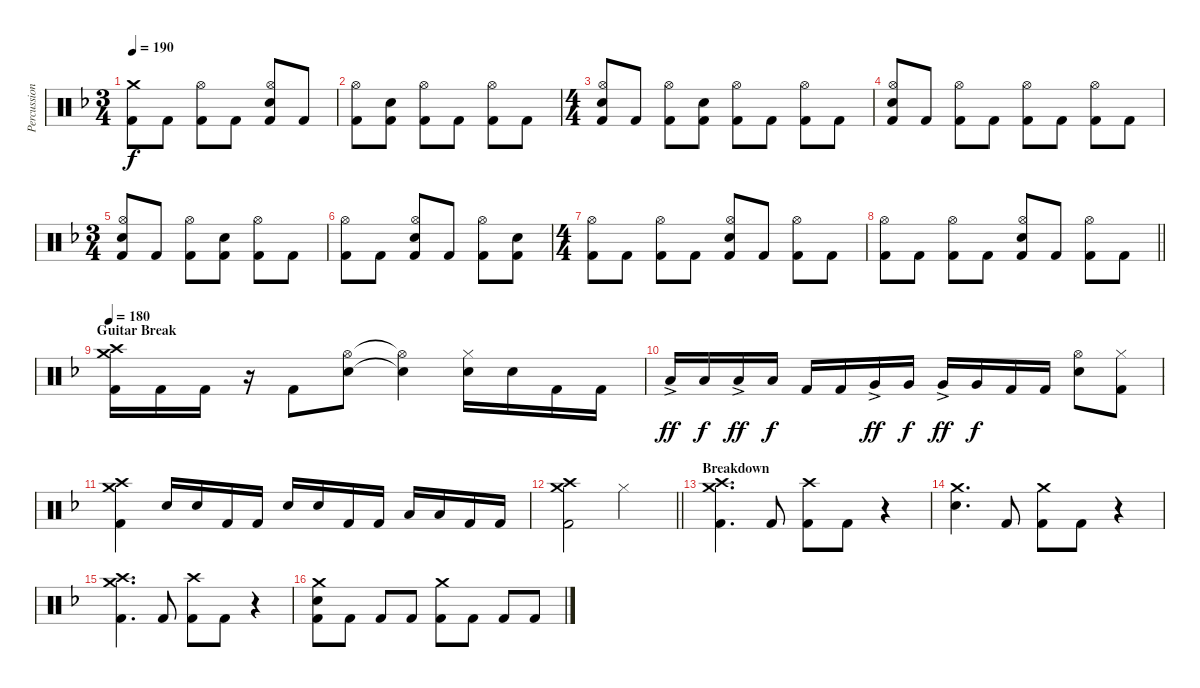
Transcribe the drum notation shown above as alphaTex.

\track ("Percussion" "Percussion") {instrument percussion}
\staff {score}
\articulation defaults
\ts (3 4)
\tempo 190
\clef neutral
\ks f
("Crash medium (hit)" "Kick (hit) 2").8{dy f} "Kick (hit) 2".8 ("Hi-Hat (open)" "Kick (hit) 2").8 "Kick (hit) 2".8 ("Hi-Hat (open)" "Electric Snare (hit)" "Kick (hit) 2").8 "Kick (hit) 2".8 |
("Hi-Hat (open)" "Kick (hit) 2").8 ("Electric Snare (hit)" "Kick (hit) 2").8 ("Hi-Hat (open)" "Kick (hit) 2").8 "Kick (hit) 2".8 ("Hi-Hat (open)" "Kick (hit) 2").8 "Kick (hit) 2".8 |
\ts (4 4)
("Hi-Hat (open)" "Electric Snare (hit)" "Kick (hit) 2").8 "Kick (hit) 2".8 ("Hi-Hat (open)" "Kick (hit) 2").8 ("Electric Snare (hit)" "Kick (hit) 2").8 ("Hi-Hat (open)" "Kick (hit) 2").8 "Kick (hit) 2".8 ("Hi-Hat (open)" "Kick (hit) 2").8 "Kick (hit) 2".8 |
("Hi-Hat (open)" "Electric Snare (hit)" "Kick (hit) 2").8 "Kick (hit) 2".8 ("Hi-Hat (open)" "Kick (hit) 2").8 "Kick (hit) 2".8 ("Hi-Hat (open)" "Kick (hit) 2").8 "Kick (hit) 2".8 ("Hi-Hat (open)" "Kick (hit) 2").8 "Kick (hit) 2".8 |
\ts (3 4)
("Hi-Hat (open)" "Electric Snare (hit)" "Kick (hit) 2").8 "Kick (hit) 2".8 ("Hi-Hat (open)" "Kick (hit) 2").8 ("Electric Snare (hit)" "Kick (hit) 2").8 ("Hi-Hat (open)" "Kick (hit) 2").8 "Kick (hit) 2".8 |
("Hi-Hat (open)" "Kick (hit) 2").8 "Kick (hit) 2".8 ("Hi-Hat (open)" "Electric Snare (hit)" "Kick (hit) 2").8 "Kick (hit) 2".8 ("Hi-Hat (open)" "Kick (hit) 2").8 ("Electric Snare (hit)" "Kick (hit) 2").8 |
\ts (4 4)
("Hi-Hat (open)" "Kick (hit) 2").8 "Kick (hit) 2".8 ("Hi-Hat (open)" "Kick (hit) 2").8 "Kick (hit) 2".8 ("Hi-Hat (open)" "Electric Snare (hit)" "Kick (hit) 2").8 "Kick (hit) 2".8 ("Hi-Hat (open)" "Kick (hit) 2").8 "Kick (hit) 2".8 |
\barLineRight lightlight
("Hi-Hat (open)" "Kick (hit) 2").8 "Kick (hit) 2".8 ("Hi-Hat (open)" "Kick (hit) 2").8 "Kick (hit) 2".8 ("Hi-Hat (open)" "Electric Snare (hit)" "Kick (hit) 2").8 "Kick (hit) 2".8 ("Hi-Hat (open)" "Kick (hit) 2").8 "Kick (hit) 2".8 |
\section ("" "Guitar Break")
\tempo 180
("Crash medium (hit)" "Crash high (hit)" "Kick (hit) 2").16 "Kick (hit) 2".16 "Kick (hit) 2".16 r.16 "Kick (hit) 2".8 ("Hi-Hat (open)" "Electric Snare (hit)").8 ("Hi-Hat (open)"{t} "Electric Snare (hit)"{t}).4 ("Hi-Hat (closed)" "Electric Snare (hit)").16 "Electric Snare (hit)".16 "Kick (hit) 2".16 "Kick (hit) 2".16 |
"Low Tom (hit)"{ac}.16{dy ff} "Low Tom (hit)".16{dy f} "Low Tom (hit)"{ac}.16{dy ff} "Low Tom (hit)".16{dy f} "Kick (hit) 2".16 "Kick (hit) 2".16 "Very Low Tom (hit)"{ac}.16{dy ff} "Very Low Tom (hit)".16{dy f} "Very Low Tom (hit)"{ac}.16{dy ff} "Very Low Tom (hit)".16{dy f} "Kick (hit) 2".16 "Kick (hit) 2".16 ("Hi-Hat (open)" "Electric Snare (hit)").8 ("Hi-Hat (closed)" "Kick (hit) 2").8 |
("Crash medium (hit)" "Crash high (hit)" "Kick (hit) 2").4 "Electric Snare (hit)".16 "Electric Snare (hit)".16 "Kick (hit) 2".16 "Kick (hit) 2".16 "Electric Snare (hit)".16 "Electric Snare (hit)".16 "Kick (hit) 2".16 "Kick (hit) 2".16 "Low Tom (hit)".16 "Low Tom (hit)".16 "Kick (hit) 2".16 "Kick (hit) 2".16 |
\barLineRight lightlight
("Crash medium (hit)" "Crash high (hit)" "Kick (hit) 2").2 "Hi-Hat (closed)".2 |
\section ("" "Breakdown")
("Crash medium (hit)" "Crash high (hit)" "Kick (hit) 2").4{d} "Kick (hit) 2".8 ("Crash high (hit)" "Kick (hit) 2").8 "Kick (hit) 2".8 r.4 |
("Crash medium (hit)" "Electric Snare (hit)").4{d} "Kick (hit) 2".8 ("Crash medium (hit)" "Kick (hit) 2").8 "Kick (hit) 2".8 r.4 |
("Crash medium (hit)" "Crash high (hit)" "Kick (hit) 2").4{d} "Kick (hit) 2".8 ("Crash high (hit)" "Kick (hit) 2").8 "Kick (hit) 2".8 r.4 |
("Crash medium (hit)" "Electric Snare (hit)" "Kick (hit) 2").8 "Kick (hit) 2".8 "Kick (hit) 2".8 "Kick (hit) 2".8 ("Crash medium (hit)" "Kick (hit) 2").8 "Kick (hit) 2".8 "Kick (hit) 2".8 "Kick (hit) 2".8
